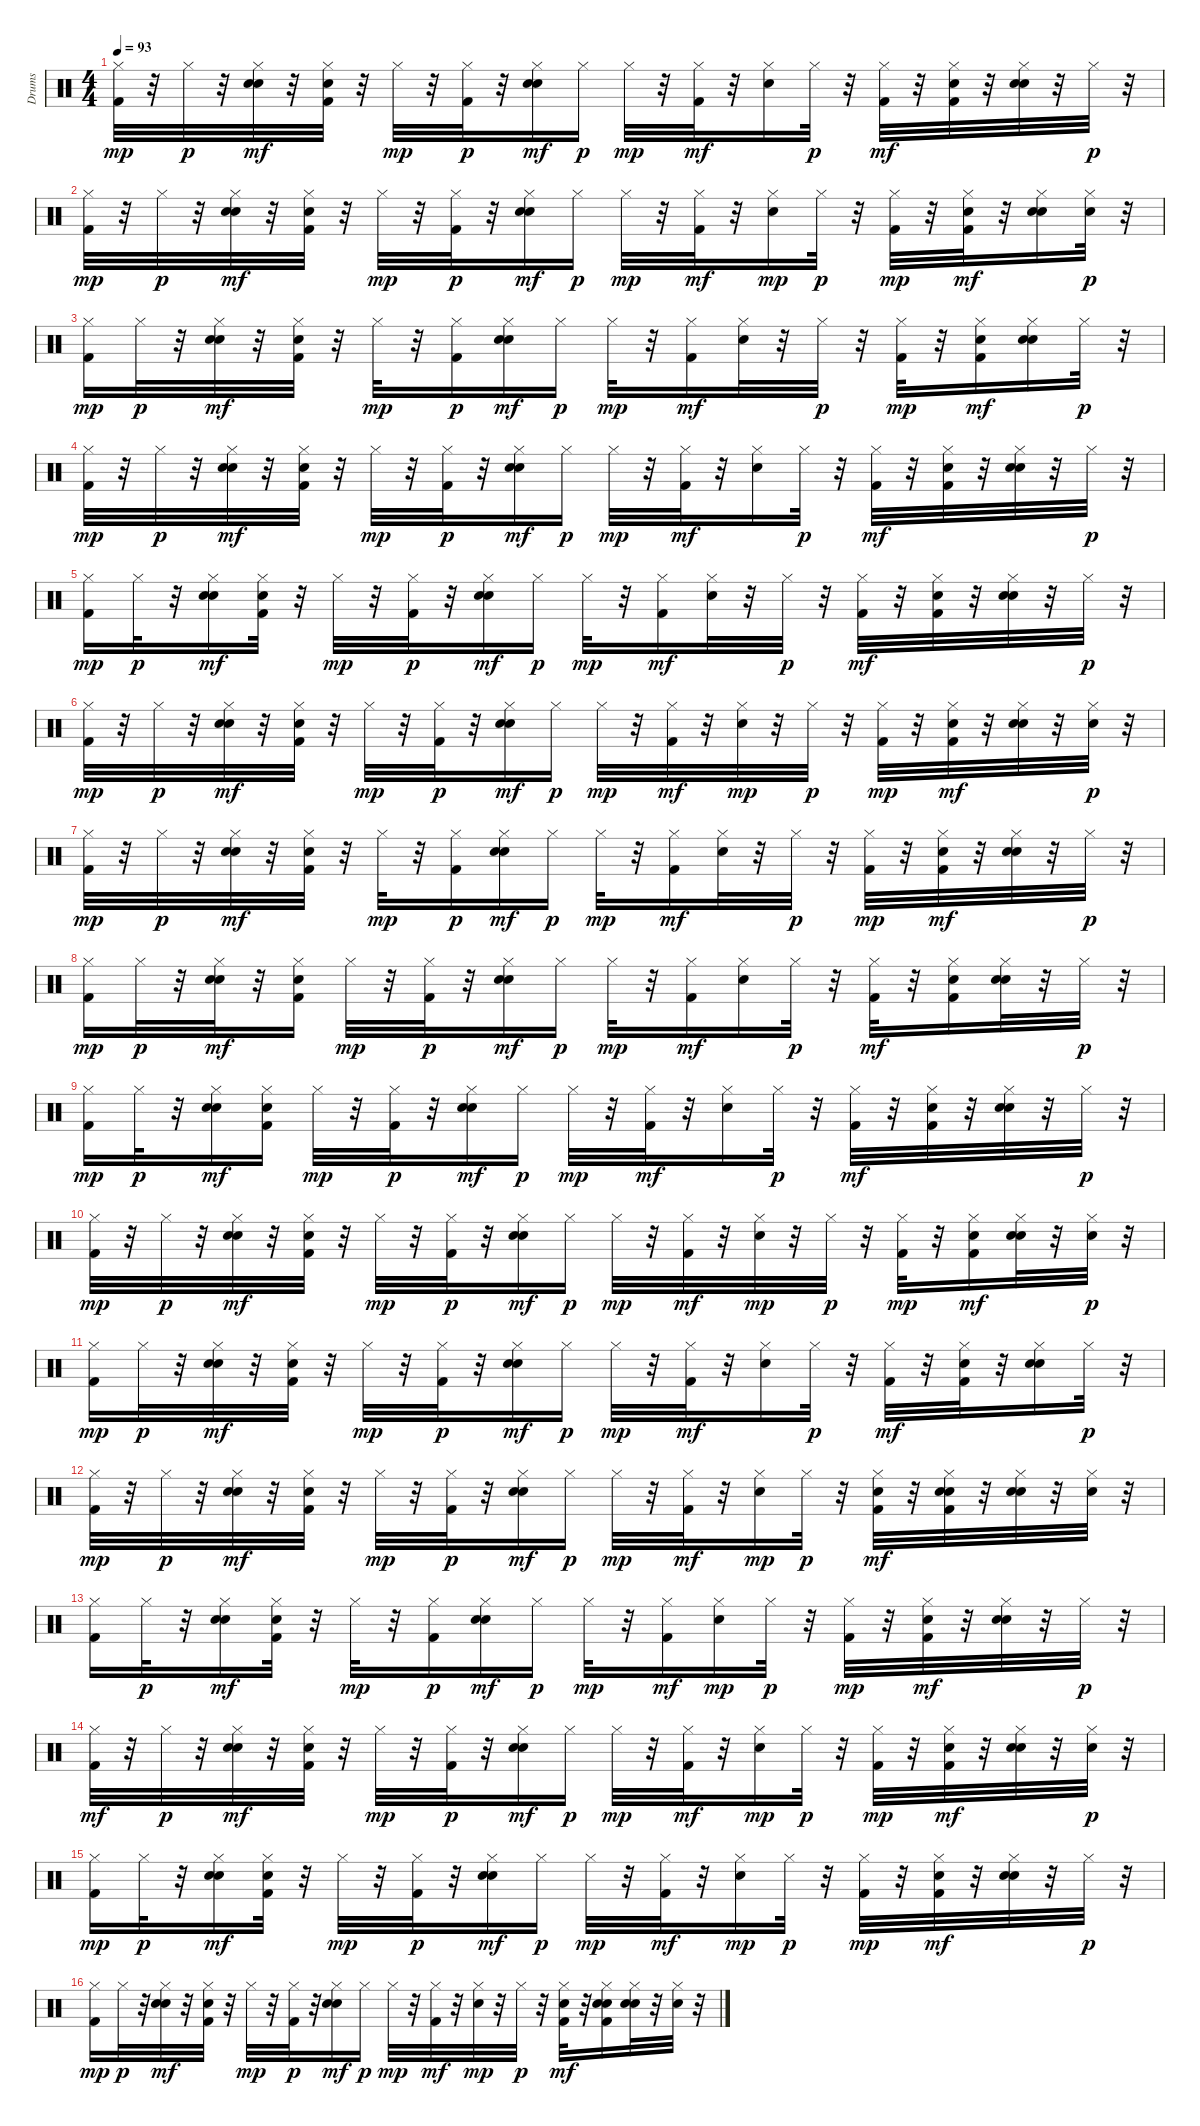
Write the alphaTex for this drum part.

\track ("Drums" "Drums") {instrument percussion}
\staff {score}
\articulation defaults
\ts (4 4)
\tempo 93
\clef neutral
\ks c
("Kick (hit) 2" "Hi-Hat (closed)").32{dy mp} r.32 "Hi-Hat (closed)".32{dy p} r.32 ("Electric Snare (hit)" "Hi-Hat (closed)" "Hand Clap (hit)").32{dy mf} r.32 ("Hand Clap (hit)" "Hi-Hat (closed)" "Kick (hit) 2").32 r.32 "Hi-Hat (closed)".32{dy mp} r.32 ("Kick (hit) 2" "Hi-Hat (closed)").32{dy p} r.32 ("Hand Clap (hit)" "Hi-Hat (closed)" "Electric Snare (hit)").16{dy mf} "Hi-Hat (closed)".16{dy p} "Hi-Hat (closed)".32{dy mp} r.32 ("Hi-Hat (closed)" "Kick (hit) 2").32{dy mf} r.32 ("Hi-Hat (closed)" "Electric Snare (hit)").16 "Hi-Hat (closed)".32{dy p} r.32 ("Hi-Hat (closed)" "Kick (hit) 2").32{dy mf} r.32 ("Hi-Hat (closed)" "Hand Clap (hit)" "Kick (hit) 2").32 r.32 ("Hi-Hat (closed)" "Hand Clap (hit)" "Electric Snare (hit)").32 r.32 "Hi-Hat (closed)".32{dy p} r.32 |
("Kick (hit) 2" "Hi-Hat (closed)").32{dy mp} r.32 "Hi-Hat (closed)".32{dy p} r.32 ("Hand Clap (hit)" "Hi-Hat (closed)" "Electric Snare (hit)").32{dy mf} r.32 ("Hi-Hat (closed)" "Hand Clap (hit)" "Kick (hit) 2").32 r.32 "Hi-Hat (closed)".32{dy mp} r.32 ("Kick (hit) 2" "Hi-Hat (closed)").32{dy p} r.32 ("Hi-Hat (closed)" "Electric Snare (hit)" "Hand Clap (hit)").16{dy mf} "Hi-Hat (closed)".16{dy p} "Hi-Hat (closed)".32{dy mp} r.32 ("Hi-Hat (closed)" "Kick (hit) 2").32{dy mf} r.32 ("Electric Snare (hit)" "Hi-Hat (closed)").16{dy mp} "Hi-Hat (closed)".32{dy p} r.32 ("Kick (hit) 2" "Hi-Hat (closed)").32{dy mp} r.32 ("Kick (hit) 2" "Hi-Hat (closed)" "Hand Clap (hit)").32{dy mf} r.32 ("Hand Clap (hit)" "Hi-Hat (closed)" "Electric Snare (hit)").16 ("Electric Snare (hit)" "Hi-Hat (closed)").32{dy p} r.32 |
("Kick (hit) 2" "Hi-Hat (closed)").16{dy mp} "Hi-Hat (closed)".32{dy p} r.32 ("Electric Snare (hit)" "Hi-Hat (closed)" "Hand Clap (hit)").32{dy mf} r.32 ("Hand Clap (hit)" "Hi-Hat (closed)" "Kick (hit) 2").32 r.32 "Hi-Hat (closed)".32{dy mp} r.32 ("Kick (hit) 2" "Hi-Hat (closed)").16{dy p} ("Hand Clap (hit)" "Hi-Hat (closed)" "Electric Snare (hit)").16{dy mf} "Hi-Hat (closed)".16{dy p} "Hi-Hat (closed)".32{dy mp} r.32 ("Hi-Hat (closed)" "Kick (hit) 2").16{dy mf} ("Hi-Hat (closed)" "Electric Snare (hit)").32 r.32 "Hi-Hat (closed)".32{dy p} r.32 ("Kick (hit) 2" "Hi-Hat (closed)").32{dy mp} r.32 ("Hand Clap (hit)" "Hi-Hat (closed)" "Kick (hit) 2").16{dy mf} ("Hi-Hat (closed)" "Hand Clap (hit)" "Electric Snare (hit)").16 "Hi-Hat (closed)".32{dy p} r.32 |
("Kick (hit) 2" "Hi-Hat (closed)").32{dy mp} r.32 "Hi-Hat (closed)".32{dy p} r.32 ("Electric Snare (hit)" "Hi-Hat (closed)" "Hand Clap (hit)").32{dy mf} r.32 ("Hand Clap (hit)" "Hi-Hat (closed)" "Kick (hit) 2").32 r.32 "Hi-Hat (closed)".32{dy mp} r.32 ("Kick (hit) 2" "Hi-Hat (closed)").32{dy p} r.32 ("Hand Clap (hit)" "Hi-Hat (closed)" "Electric Snare (hit)").16{dy mf} "Hi-Hat (closed)".16{dy p} "Hi-Hat (closed)".32{dy mp} r.32 ("Hi-Hat (closed)" "Kick (hit) 2").32{dy mf} r.32 ("Hi-Hat (closed)" "Electric Snare (hit)").16 "Hi-Hat (closed)".32{dy p} r.32 ("Hi-Hat (closed)" "Kick (hit) 2").32{dy mf} r.32 ("Hand Clap (hit)" "Hi-Hat (closed)" "Kick (hit) 2").32 r.32 ("Hi-Hat (closed)" "Hand Clap (hit)" "Electric Snare (hit)").32 r.32 "Hi-Hat (closed)".32{dy p} r.32 |
("Kick (hit) 2" "Hi-Hat (closed)").16{dy mp} "Hi-Hat (closed)".32{dy p} r.32 ("Electric Snare (hit)" "Hi-Hat (closed)" "Hand Clap (hit)").16{dy mf} ("Hand Clap (hit)" "Hi-Hat (closed)" "Kick (hit) 2").32 r.32 "Hi-Hat (closed)".32{dy mp} r.32 ("Kick (hit) 2" "Hi-Hat (closed)").32{dy p} r.32 ("Hand Clap (hit)" "Hi-Hat (closed)" "Electric Snare (hit)").16{dy mf} "Hi-Hat (closed)".16{dy p} "Hi-Hat (closed)".32{dy mp} r.32 ("Hi-Hat (closed)" "Kick (hit) 2").16{dy mf} ("Hi-Hat (closed)" "Electric Snare (hit)").32 r.32 "Hi-Hat (closed)".32{dy p} r.32 ("Hi-Hat (closed)" "Kick (hit) 2").32{dy mf} r.32 ("Hi-Hat (closed)" "Hand Clap (hit)" "Kick (hit) 2").32 r.32 ("Hi-Hat (closed)" "Hand Clap (hit)" "Electric Snare (hit)").32 r.32 "Hi-Hat (closed)".32{dy p} r.32 |
("Kick (hit) 2" "Hi-Hat (closed)").32{dy mp} r.32 "Hi-Hat (closed)".32{dy p} r.32 ("Hand Clap (hit)" "Hi-Hat (closed)" "Electric Snare (hit)").32{dy mf} r.32 ("Hi-Hat (closed)" "Hand Clap (hit)" "Kick (hit) 2").32 r.32 "Hi-Hat (closed)".32{dy mp} r.32 ("Kick (hit) 2" "Hi-Hat (closed)").32{dy p} r.32 ("Hi-Hat (closed)" "Electric Snare (hit)" "Hand Clap (hit)").16{dy mf} "Hi-Hat (closed)".16{dy p} "Hi-Hat (closed)".32{dy mp} r.32 ("Hi-Hat (closed)" "Kick (hit) 2").32{dy mf} r.32 ("Electric Snare (hit)" "Hi-Hat (closed)").32{dy mp} r.32 "Hi-Hat (closed)".32{dy p} r.32 ("Kick (hit) 2" "Hi-Hat (closed)").32{dy mp} r.32 ("Kick (hit) 2" "Hi-Hat (closed)" "Hand Clap (hit)").32{dy mf} r.32 ("Hand Clap (hit)" "Hi-Hat (closed)" "Electric Snare (hit)").32 r.32 ("Electric Snare (hit)" "Hi-Hat (closed)").32{dy p} r.32 |
("Kick (hit) 2" "Hi-Hat (closed)").32{dy mp} r.32 "Hi-Hat (closed)".32{dy p} r.32 ("Electric Snare (hit)" "Hi-Hat (closed)" "Hand Clap (hit)").32{dy mf} r.32 ("Hand Clap (hit)" "Hi-Hat (closed)" "Kick (hit) 2").32 r.32 "Hi-Hat (closed)".32{dy mp} r.32 ("Kick (hit) 2" "Hi-Hat (closed)").16{dy p} ("Hand Clap (hit)" "Hi-Hat (closed)" "Electric Snare (hit)").16{dy mf} "Hi-Hat (closed)".16{dy p} "Hi-Hat (closed)".32{dy mp} r.32 ("Hi-Hat (closed)" "Kick (hit) 2").16{dy mf} ("Hi-Hat (closed)" "Electric Snare (hit)").32 r.32 "Hi-Hat (closed)".32{dy p} r.32 ("Kick (hit) 2" "Hi-Hat (closed)").32{dy mp} r.32 ("Hand Clap (hit)" "Hi-Hat (closed)" "Kick (hit) 2").32{dy mf} r.32 ("Hi-Hat (closed)" "Hand Clap (hit)" "Electric Snare (hit)").32 r.32 "Hi-Hat (closed)".32{dy p} r.32 |
("Kick (hit) 2" "Hi-Hat (closed)").16{dy mp} "Hi-Hat (closed)".32{dy p} r.32 ("Electric Snare (hit)" "Hi-Hat (closed)" "Hand Clap (hit)").32{dy mf} r.32 ("Hand Clap (hit)" "Hi-Hat (closed)" "Kick (hit) 2").16 "Hi-Hat (closed)".32{dy mp} r.32 ("Kick (hit) 2" "Hi-Hat (closed)").32{dy p} r.32 ("Hand Clap (hit)" "Hi-Hat (closed)" "Electric Snare (hit)").16{dy mf} "Hi-Hat (closed)".16{dy p} "Hi-Hat (closed)".32{dy mp} r.32 ("Hi-Hat (closed)" "Kick (hit) 2").16{dy mf} ("Hi-Hat (closed)" "Electric Snare (hit)").16 "Hi-Hat (closed)".32{dy p} r.32 ("Hi-Hat (closed)" "Kick (hit) 2").32{dy mf} r.32 ("Hand Clap (hit)" "Hi-Hat (closed)" "Kick (hit) 2").16 ("Hi-Hat (closed)" "Hand Clap (hit)" "Electric Snare (hit)").32 r.32 "Hi-Hat (closed)".32{dy p} r.32 |
("Kick (hit) 2" "Hi-Hat (closed)").16{dy mp} "Hi-Hat (closed)".32{dy p} r.32 ("Electric Snare (hit)" "Hi-Hat (closed)" "Hand Clap (hit)").16{dy mf} ("Hand Clap (hit)" "Hi-Hat (closed)" "Kick (hit) 2").16 "Hi-Hat (closed)".32{dy mp} r.32 ("Kick (hit) 2" "Hi-Hat (closed)").32{dy p} r.32 ("Hand Clap (hit)" "Hi-Hat (closed)" "Electric Snare (hit)").16{dy mf} "Hi-Hat (closed)".16{dy p} "Hi-Hat (closed)".32{dy mp} r.32 ("Hi-Hat (closed)" "Kick (hit) 2").32{dy mf} r.32 ("Hi-Hat (closed)" "Electric Snare (hit)").16 "Hi-Hat (closed)".32{dy p} r.32 ("Hi-Hat (closed)" "Kick (hit) 2").32{dy mf} r.32 ("Hi-Hat (closed)" "Hand Clap (hit)" "Kick (hit) 2").32 r.32 ("Hi-Hat (closed)" "Hand Clap (hit)" "Electric Snare (hit)").32 r.32 "Hi-Hat (closed)".32{dy p} r.32 |
("Kick (hit) 2" "Hi-Hat (closed)").32{dy mp} r.32 "Hi-Hat (closed)".32{dy p} r.32 ("Hand Clap (hit)" "Hi-Hat (closed)" "Electric Snare (hit)").32{dy mf} r.32 ("Hi-Hat (closed)" "Hand Clap (hit)" "Kick (hit) 2").32 r.32 "Hi-Hat (closed)".32{dy mp} r.32 ("Kick (hit) 2" "Hi-Hat (closed)").32{dy p} r.32 ("Hi-Hat (closed)" "Electric Snare (hit)" "Hand Clap (hit)").16{dy mf} "Hi-Hat (closed)".16{dy p} "Hi-Hat (closed)".32{dy mp} r.32 ("Hi-Hat (closed)" "Kick (hit) 2").32{dy mf} r.32 ("Electric Snare (hit)" "Hi-Hat (closed)").32{dy mp} r.32 "Hi-Hat (closed)".32{dy p} r.32 ("Kick (hit) 2" "Hi-Hat (closed)").32{dy mp} r.32 ("Kick (hit) 2" "Hi-Hat (closed)" "Hand Clap (hit)").16{dy mf} ("Hand Clap (hit)" "Hi-Hat (closed)" "Electric Snare (hit)").32 r.32 ("Electric Snare (hit)" "Hi-Hat (closed)").32{dy p} r.32 |
("Kick (hit) 2" "Hi-Hat (closed)").16{dy mp} "Hi-Hat (closed)".32{dy p} r.32 ("Electric Snare (hit)" "Hi-Hat (closed)" "Hand Clap (hit)").32{dy mf} r.32 ("Hand Clap (hit)" "Hi-Hat (closed)" "Kick (hit) 2").32 r.32 "Hi-Hat (closed)".32{dy mp} r.32 ("Kick (hit) 2" "Hi-Hat (closed)").32{dy p} r.32 ("Hand Clap (hit)" "Hi-Hat (closed)" "Electric Snare (hit)").16{dy mf} "Hi-Hat (closed)".16{dy p} "Hi-Hat (closed)".32{dy mp} r.32 ("Hi-Hat (closed)" "Kick (hit) 2").32{dy mf} r.32 ("Hi-Hat (closed)" "Electric Snare (hit)").16 "Hi-Hat (closed)".32{dy p} r.32 ("Hi-Hat (closed)" "Kick (hit) 2").32{dy mf} r.32 ("Hi-Hat (closed)" "Hand Clap (hit)" "Kick (hit) 2").32 r.32 ("Hi-Hat (closed)" "Hand Clap (hit)" "Electric Snare (hit)").16 "Hi-Hat (closed)".32{dy p} r.32 |
("Kick (hit) 2" "Hi-Hat (closed)").32{dy mp} r.32 "Hi-Hat (closed)".32{dy p} r.32 ("Electric Snare (hit)" "Hi-Hat (closed)" "Hand Clap (hit)").32{dy mf} r.32 ("Hand Clap (hit)" "Hi-Hat (closed)" "Kick (hit) 2").32 r.32 "Hi-Hat (closed)".32{dy mp} r.32 ("Kick (hit) 2" "Hi-Hat (closed)").32{dy p} r.32 ("Hand Clap (hit)" "Hi-Hat (closed)" "Electric Snare (hit)").16{dy mf} "Hi-Hat (closed)".16{dy p} "Hi-Hat (closed)".32{dy mp} r.32 ("Hi-Hat (closed)" "Kick (hit) 2").32{dy mf} r.32 ("Electric Snare (hit)" "Hi-Hat (closed)").16{dy mp} "Hi-Hat (closed)".32{dy p} r.32 ("Kick (hit) 2" "Hi-Hat (closed)" "Electric Snare (hit)").32{dy mf} r.32 ("Hi-Hat (closed)" "Hand Clap (hit)" "Kick (hit) 2" "Electric Snare (hit)").32 r.32 ("Hand Clap (hit)" "Hi-Hat (closed)" "Electric Snare (hit)").32 r.32 ("Hi-Hat (closed)" "Electric Snare (hit)").32 r.32 |
("Hi-Hat (closed)" "Kick (hit) 2").16 "Hi-Hat (closed)".32{dy p} r.32 ("Electric Snare (hit)" "Hi-Hat (closed)" "Hand Clap (hit)").16{dy mf} ("Hi-Hat (closed)" "Hand Clap (hit)" "Kick (hit) 2").32 r.32 "Hi-Hat (closed)".32{dy mp} r.32 ("Kick (hit) 2" "Hi-Hat (closed)").16{dy p} ("Hi-Hat (closed)" "Hand Clap (hit)" "Electric Snare (hit)").16{dy mf} "Hi-Hat (closed)".16{dy p} "Hi-Hat (closed)".32{dy mp} r.32 ("Hi-Hat (closed)" "Kick (hit) 2").16{dy mf} ("Electric Snare (hit)" "Hi-Hat (closed)").16{dy mp} "Hi-Hat (closed)".32{dy p} r.32 ("Kick (hit) 2" "Hi-Hat (closed)").32{dy mp} r.32 ("Hand Clap (hit)" "Hi-Hat (closed)" "Kick (hit) 2").32{dy mf} r.32 ("Hand Clap (hit)" "Hi-Hat (closed)" "Electric Snare (hit)").32 r.32 "Hi-Hat (closed)".32{dy p} r.32 |
("Hi-Hat (closed)" "Kick (hit) 2").32{dy mf} r.32 "Hi-Hat (closed)".32{dy p} r.32 ("Hand Clap (hit)" "Hi-Hat (closed)" "Electric Snare (hit)").32{dy mf} r.32 ("Hi-Hat (closed)" "Hand Clap (hit)" "Kick (hit) 2").32 r.32 "Hi-Hat (closed)".32{dy mp} r.32 ("Kick (hit) 2" "Hi-Hat (closed)").32{dy p} r.32 ("Hi-Hat (closed)" "Electric Snare (hit)" "Hand Clap (hit)").16{dy mf} "Hi-Hat (closed)".16{dy p} "Hi-Hat (closed)".32{dy mp} r.32 ("Hi-Hat (closed)" "Kick (hit) 2").32{dy mf} r.32 ("Electric Snare (hit)" "Hi-Hat (closed)").16{dy mp} "Hi-Hat (closed)".32{dy p} r.32 ("Kick (hit) 2" "Hi-Hat (closed)").32{dy mp} r.32 ("Hand Clap (hit)" "Hi-Hat (closed)" "Kick (hit) 2").32{dy mf} r.32 ("Electric Snare (hit)" "Hi-Hat (closed)" "Hand Clap (hit)").32 r.32 ("Electric Snare (hit)" "Hi-Hat (closed)").32{dy p} r.32 |
("Kick (hit) 2" "Hi-Hat (closed)").16{dy mp} "Hi-Hat (closed)".32{dy p} r.32 ("Electric Snare (hit)" "Hi-Hat (closed)" "Hand Clap (hit)").16{dy mf} ("Hand Clap (hit)" "Hi-Hat (closed)" "Kick (hit) 2").32 r.32 "Hi-Hat (closed)".32{dy mp} r.32 ("Kick (hit) 2" "Hi-Hat (closed)").32{dy p} r.32 ("Hand Clap (hit)" "Hi-Hat (closed)" "Electric Snare (hit)").16{dy mf} "Hi-Hat (closed)".16{dy p} "Hi-Hat (closed)".32{dy mp} r.32 ("Hi-Hat (closed)" "Kick (hit) 2").32{dy mf} r.32 ("Electric Snare (hit)" "Hi-Hat (closed)").16{dy mp} "Hi-Hat (closed)".32{dy p} r.32 ("Kick (hit) 2" "Hi-Hat (closed)").32{dy mp} r.32 ("Hi-Hat (closed)" "Hand Clap (hit)" "Kick (hit) 2").32{dy mf} r.32 ("Hand Clap (hit)" "Hi-Hat (closed)" "Electric Snare (hit)").32 r.32 "Hi-Hat (closed)".32{dy p} r.32 |
("Kick (hit) 2" "Hi-Hat (closed)").16{dy mp} "Hi-Hat (closed)".32{dy p} r.32 ("Hand Clap (hit)" "Hi-Hat (closed)" "Electric Snare (hit)").32{dy mf} r.32 ("Hand Clap (hit)" "Hi-Hat (closed)" "Kick (hit) 2").32 r.32 "Hi-Hat (closed)".32{dy mp} r.32 ("Kick (hit) 2" "Hi-Hat (closed)").32{dy p} r.32 ("Hand Clap (hit)" "Hi-Hat (closed)" "Electric Snare (hit)").16{dy mf} "Hi-Hat (closed)".16{dy p} "Hi-Hat (closed)".32{dy mp} r.32 ("Hi-Hat (closed)" "Kick (hit) 2").32{dy mf} r.32 ("Electric Snare (hit)" "Hi-Hat (closed)").32{dy mp} r.32 "Hi-Hat (closed)".32{dy p} r.32 ("Hi-Hat (closed)" "Electric Snare (hit)" "Kick (hit) 2").32{dy mf} r.32 ("Hi-Hat (closed)" "Electric Snare (hit)" "Hand Clap (hit)" "Kick (hit) 2").16 ("Electric Snare (hit)" "Hi-Hat (closed)" "Hand Clap (hit)").32 r.32 ("Hi-Hat (closed)" "Electric Snare (hit)").32 r.32
